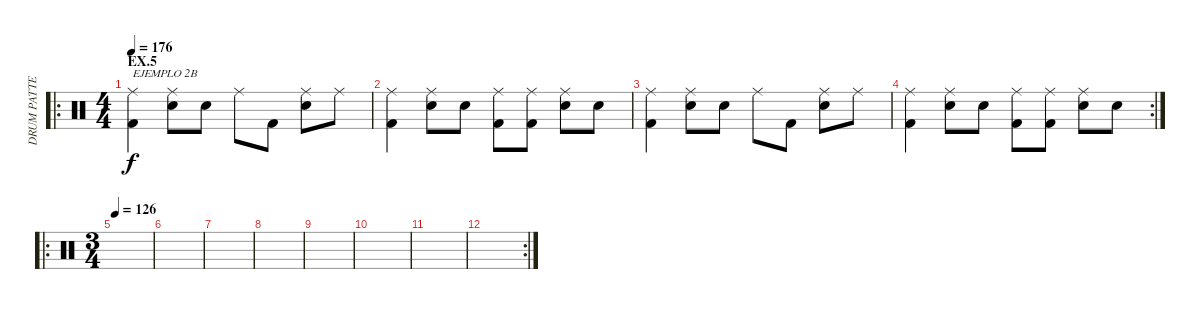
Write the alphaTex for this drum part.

\track ("DRUM PATTERN" "DRUM PATTE") {instrument percussion}
\staff {score}
\articulation defaults
\ro
\ts (4 4)
\section ("" "EX.5")
\tempo 176
\clef neutral
\ks c
("Ride (middle)" "Kick (hit) 2").4{txt "EJEMPLO 2B" dy f} ("Ride (middle)" "Snare (hit) 2").8 "Snare (hit) 2".8 "Ride (middle)".8 "Kick (hit) 2".8 ("Ride (middle)" "Snare (hit) 2").8 "Ride (middle)".8 |
("Ride (middle)" "Kick (hit) 2").4 ("Ride (middle)" "Snare (hit) 2").8 "Snare (hit) 2".8 ("Ride (middle)" "Kick (hit) 2").8 ("Ride (middle)" "Kick (hit) 2").8 ("Ride (middle)" "Snare (hit) 2").8 "Snare (hit) 2".8 |
("Ride (middle)" "Kick (hit) 2").4 ("Ride (middle)" "Snare (hit) 2").8 "Snare (hit) 2".8 "Ride (middle)".8 "Kick (hit) 2".8 ("Ride (middle)" "Snare (hit) 2").8 "Ride (middle)".8 |
\rc 2
("Ride (middle)" "Kick (hit) 2").4 ("Ride (middle)" "Snare (hit) 2").8 "Snare (hit) 2".8 ("Ride (middle)" "Kick (hit) 2").8 ("Ride (middle)" "Kick (hit) 2").8 ("Ride (middle)" "Snare (hit) 2").8 "Snare (hit) 2".8 |
\ro
\ts (3 4)
\tempo 126
|
|
|
|
|
|
|
\rc 2
